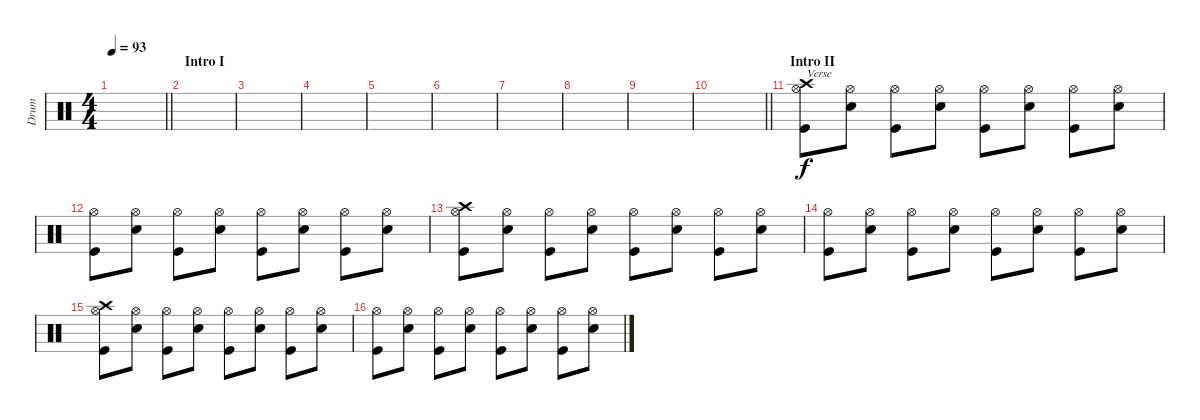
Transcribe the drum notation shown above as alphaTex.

\track ("Drum" "Drum") {instrument percussion}
\staff {score}
\articulation defaults
\ts (4 4)
\tempo 93
\clef neutral
\barLineRight lightlight
\ks c
|
\section ("" "Intro I")
|
|
|
|
|
|
|
|
\barLineRight lightlight
|
\section ("" "Intro II")
("Kick (hit)" "Hi-Hat (open)" "Crash high (hit)").8{txt "Verse"} ("Snare (hit) 2" "Hi-Hat (open)").8 ("Kick (hit)" "Hi-Hat (open)").8 ("Snare (hit) 2" "Hi-Hat (open)").8 ("Kick (hit)" "Hi-Hat (open)").8 ("Snare (hit) 2" "Hi-Hat (open)").8 ("Kick (hit)" "Hi-Hat (open)").8 ("Snare (hit) 2" "Hi-Hat (open)").8 |
("Kick (hit)" "Hi-Hat (open)").8 ("Snare (hit) 2" "Hi-Hat (open)").8 ("Kick (hit)" "Hi-Hat (open)").8 ("Snare (hit) 2" "Hi-Hat (open)").8 ("Kick (hit)" "Hi-Hat (open)").8 ("Snare (hit) 2" "Hi-Hat (open)").8 ("Kick (hit)" "Hi-Hat (open)").8 ("Snare (hit) 2" "Hi-Hat (open)").8 |
("Kick (hit)" "Hi-Hat (open)" "Crash high (hit)").8 ("Snare (hit) 2" "Hi-Hat (open)").8 ("Kick (hit)" "Hi-Hat (open)").8 ("Snare (hit) 2" "Hi-Hat (open)").8 ("Kick (hit)" "Hi-Hat (open)").8 ("Snare (hit) 2" "Hi-Hat (open)").8 ("Kick (hit)" "Hi-Hat (open)").8 ("Snare (hit) 2" "Hi-Hat (open)").8 |
("Kick (hit)" "Hi-Hat (open)").8 ("Snare (hit) 2" "Hi-Hat (open)").8 ("Kick (hit)" "Hi-Hat (open)").8 ("Snare (hit) 2" "Hi-Hat (open)").8 ("Kick (hit)" "Hi-Hat (open)").8 ("Snare (hit) 2" "Hi-Hat (open)").8 ("Kick (hit)" "Hi-Hat (open)").8 ("Snare (hit) 2" "Hi-Hat (open)").8 |
("Kick (hit)" "Hi-Hat (open)" "Crash high (hit)").8 ("Snare (hit) 2" "Hi-Hat (open)").8 ("Kick (hit)" "Hi-Hat (open)").8 ("Snare (hit) 2" "Hi-Hat (open)").8 ("Kick (hit)" "Hi-Hat (open)").8 ("Snare (hit) 2" "Hi-Hat (open)").8 ("Kick (hit)" "Hi-Hat (open)").8 ("Snare (hit) 2" "Hi-Hat (open)").8 |
("Kick (hit)" "Hi-Hat (open)").8 ("Snare (hit) 2" "Hi-Hat (open)").8 ("Kick (hit)" "Hi-Hat (open)").8 ("Snare (hit) 2" "Hi-Hat (open)").8 ("Kick (hit)" "Hi-Hat (open)").8 ("Snare (hit) 2" "Hi-Hat (open)").8 ("Kick (hit)" "Hi-Hat (open)").8 ("Snare (hit) 2" "Hi-Hat (open)").8
